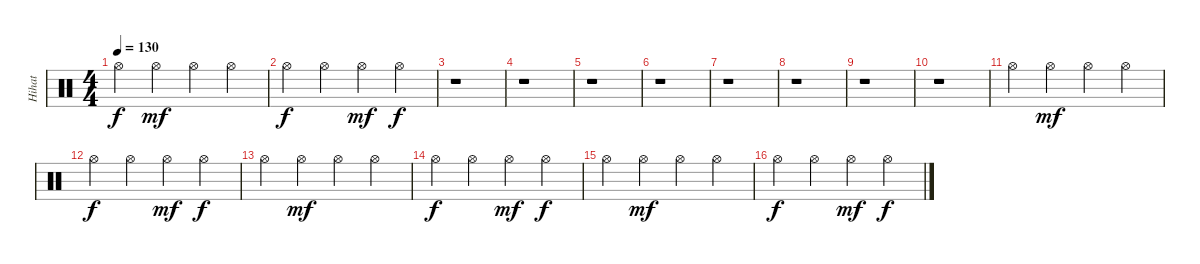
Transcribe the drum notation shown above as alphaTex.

\track ("Hihat" "Hihat") {instrument percussion}
\staff {score}
\articulation defaults
\ts (4 4)
\tempo 130
\clef neutral
\ks c "Hi-Hat (open)".4{dy f} "Hi-Hat (open)".4{dy mf} "Hi-Hat (open)".4 "Hi-Hat (open)".4
|
"Hi-Hat (open)".4{dy f} "Hi-Hat (open)".4 "Hi-Hat (open)".4{dy mf} "Hi-Hat (open)".4{dy f} |
r.1 |
r.1 |
r.1 |
r.1 |
r.1 |
r.1 |
r.1 |
r.1 |
"Hi-Hat (open)".4 "Hi-Hat (open)".4{dy mf} "Hi-Hat (open)".4 "Hi-Hat (open)".4 |
"Hi-Hat (open)".4{dy f} "Hi-Hat (open)".4 "Hi-Hat (open)".4{dy mf} "Hi-Hat (open)".4{dy f} |
"Hi-Hat (open)".4 "Hi-Hat (open)".4{dy mf} "Hi-Hat (open)".4 "Hi-Hat (open)".4 |
"Hi-Hat (open)".4{dy f} "Hi-Hat (open)".4 "Hi-Hat (open)".4{dy mf} "Hi-Hat (open)".4{dy f} |
"Hi-Hat (open)".4 "Hi-Hat (open)".4{dy mf} "Hi-Hat (open)".4 "Hi-Hat (open)".4 |
"Hi-Hat (open)".4{dy f} "Hi-Hat (open)".4 "Hi-Hat (open)".4{dy mf} "Hi-Hat (open)".4{dy f}
